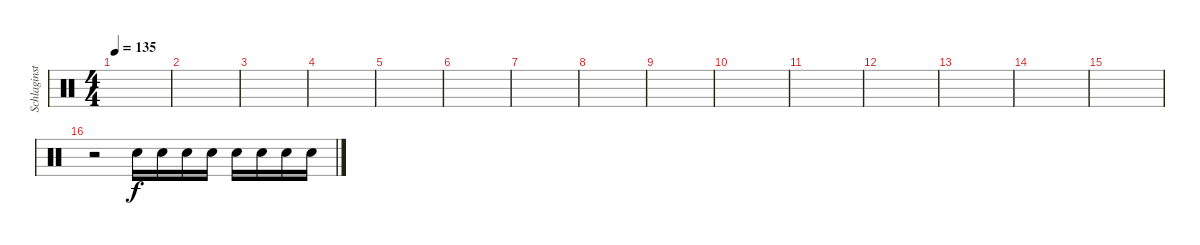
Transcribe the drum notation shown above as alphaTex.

\track ("Schlaginstrumente - Auswahl" "Schlaginst") {instrument percussion}
\staff {score}
\articulation defaults
\ts (4 4)
\tempo 135
\clef neutral
\ks c
|
|
|
|
|
|
|
|
|
|
|
|
|
|
|
r.2 "Electric Snare (hit)".16 "Electric Snare (hit)".16 "Electric Snare (hit)".16 "Electric Snare (hit)".16 "Electric Snare (hit)".16 "Electric Snare (hit)".16 "Electric Snare (hit)".16 "Electric Snare (hit)".16
